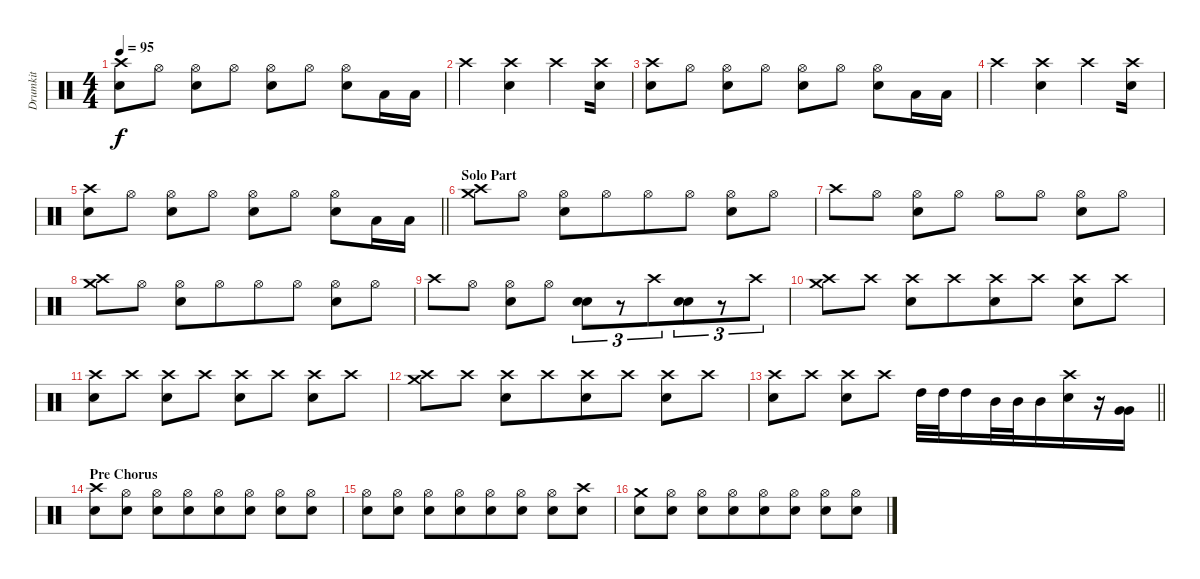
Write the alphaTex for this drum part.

\track ("Drumkit" "Drumkit") {instrument percussion}
\staff {score}
\articulation defaults
\ts (4 4)
\tempo 95
\clef neutral
\ks c
("Crash high (hit)" "Electric Snare (hit)").8{dy f beam merge} "Hi-Hat (open)".8 ("Hi-Hat (open)" "Electric Snare (hit)").8 "Hi-Hat (open)".8 ("Hi-Hat (open)" "Electric Snare (hit)").8{beam merge} "Hi-Hat (open)".8 ("Hi-Hat (open)" "Electric Snare (hit)").8{beam merge} "Low Floor Tom (hit)".16{beam merge} "Low Floor Tom (hit)".16 |
"Crash high (hit)".4{beam merge} ("Crash high (hit)" "Electric Snare (hit)").4 "Crash high (hit)".4{beam merge} ("Crash high (hit)" "Electric Snare (hit)").16 |
("Crash high (hit)" "Electric Snare (hit)").8{beam merge} "Hi-Hat (open)".8 ("Hi-Hat (open)" "Electric Snare (hit)").8 "Hi-Hat (open)".8 ("Hi-Hat (open)" "Electric Snare (hit)").8{beam merge} "Hi-Hat (open)".8 ("Hi-Hat (open)" "Electric Snare (hit)").8{beam merge} "Low Floor Tom (hit)".16{beam merge} "Low Floor Tom (hit)".16 |
"Crash high (hit)".4{beam merge} ("Crash high (hit)" "Electric Snare (hit)").4 "Crash high (hit)".4{beam merge} ("Crash high (hit)" "Electric Snare (hit)").16 |
\barLineRight lightlight
("Crash high (hit)" "Electric Snare (hit)").8{beam merge} "Hi-Hat (open)".8 ("Hi-Hat (open)" "Electric Snare (hit)").8 "Hi-Hat (open)".8 ("Hi-Hat (open)" "Electric Snare (hit)").8{beam merge} "Hi-Hat (open)".8 ("Hi-Hat (open)" "Electric Snare (hit)").8{beam merge} "Low Floor Tom (hit)".16{beam merge} "Low Floor Tom (hit)".16 |
\section ("" "Solo Part")
("Crash medium (hit)" "Crash high (hit)").8 "Hi-Hat (open)".8 ("Hi-Hat (open)" "Electric Snare (hit)").8 "Hi-Hat (open)".8{beam merge} "Hi-Hat (open)".8 "Hi-Hat (open)".8 ("Hi-Hat (open)" "Electric Snare (hit)").8{beam merge} "Hi-Hat (open)".8 |
"Crash high (hit)".8{beam merge} "Hi-Hat (open)".8 ("Hi-Hat (open)" "Electric Snare (hit)").8 "Hi-Hat (open)".8 "Hi-Hat (open)".8 "Hi-Hat (open)".8 ("Hi-Hat (open)" "Electric Snare (hit)").8 "Hi-Hat (open)".8 |
("Crash medium (hit)" "Crash high (hit)").8 "Hi-Hat (open)".8 ("Hi-Hat (open)" "Electric Snare (hit)").8 "Hi-Hat (open)".8{beam merge} "Hi-Hat (open)".8 "Hi-Hat (open)".8 ("Hi-Hat (open)" "Electric Snare (hit)").8{beam merge} "Hi-Hat (open)".8 |
"Crash high (hit)".8{beam merge} "Hi-Hat (open)".8 ("Hi-Hat (open)" "Electric Snare (hit)").8 "Hi-Hat (open)".8 ("Electric Snare (hit)" "Electric Snare (hit)").8{tu (3 2)} r.8{tu (3 2)} "Crash high (hit)".8{tu (3 2) beam merge} ("Electric Snare (hit)" "Electric Snare (hit)").8{tu (3 2)} r.8{tu (3 2)} "Crash high (hit)".8{tu (3 2)} |
("Crash medium (hit)" "Crash high (hit)").8 "Crash high (hit)".8 ("Crash high (hit)" "Electric Snare (hit)").8 "Crash high (hit)".8{beam merge} ("Crash high (hit)" "Electric Snare (hit)").8 "Crash high (hit)".8 ("Crash high (hit)" "Electric Snare (hit)").8{beam merge} "Crash high (hit)".8 |
("Crash high (hit)" "Electric Snare (hit)").8{beam merge} "Crash high (hit)".8 ("Crash high (hit)" "Electric Snare (hit)").8 "Crash high (hit)".8 ("Crash high (hit)" "Electric Snare (hit)").8 "Crash high (hit)".8 ("Crash high (hit)" "Electric Snare (hit)").8 "Crash high (hit)".8 |
("Crash medium (hit)" "Crash high (hit)").8 "Crash high (hit)".8 ("Crash high (hit)" "Electric Snare (hit)").8 "Crash high (hit)".8{beam merge} ("Crash high (hit)" "Electric Snare (hit)").8 "Crash high (hit)".8 ("Crash high (hit)" "Electric Snare (hit)").8{beam merge} "Crash high (hit)".8 |
\barLineRight lightlight
("Crash high (hit)" "Electric Snare (hit)").8{beam merge} "Crash high (hit)".8 ("Crash high (hit)" "Electric Snare (hit)").8 "Crash high (hit)".8 "High Tom (hit)".32 "High Tom (hit)".32 "High Tom (hit)".16 "Mid Tom (hit)".32 "Mid Tom (hit)".32{beam merge} "Mid Tom (hit)".16{beam merge} ("Crash high (hit)" "Electric Snare (hit)").16 r.16 ("Very Low Tom (hit)" "Very Low Tom (hit)").16 |
\section ("" "Pre Chorus")
("Crash high (hit)" "Electric Snare (hit)").8 ("Hi-Hat (open)" "Electric Snare (hit)").8 ("Hi-Hat (open)" "Electric Snare (hit)").8{beam merge} ("Hi-Hat (open)" "Electric Snare (hit)").8{beam merge} ("Hi-Hat (open)" "Electric Snare (hit)").8 ("Hi-Hat (open)" "Electric Snare (hit)").8 ("Hi-Hat (open)" "Electric Snare (hit)").8 ("Hi-Hat (open)" "Electric Snare (hit)").8 |
("Hi-Hat (open)" "Electric Snare (hit)").8 ("Hi-Hat (open)" "Electric Snare (hit)").8 ("Hi-Hat (open)" "Electric Snare (hit)").8{beam merge} ("Hi-Hat (open)" "Electric Snare (hit)").8{beam merge} ("Hi-Hat (open)" "Electric Snare (hit)").8 ("Hi-Hat (open)" "Electric Snare (hit)").8 ("Hi-Hat (open)" "Electric Snare (hit)").8 ("Crash high (hit)" "Electric Snare (hit)").8 |
("Crash medium (hit)" "Electric Snare (hit)").8 ("Hi-Hat (open)" "Electric Snare (hit)").8 ("Hi-Hat (open)" "Electric Snare (hit)").8{beam merge} ("Hi-Hat (open)" "Electric Snare (hit)").8{beam merge} ("Hi-Hat (open)" "Electric Snare (hit)").8 ("Hi-Hat (open)" "Electric Snare (hit)").8 ("Hi-Hat (open)" "Electric Snare (hit)").8 ("Hi-Hat (open)" "Electric Snare (hit)").8
